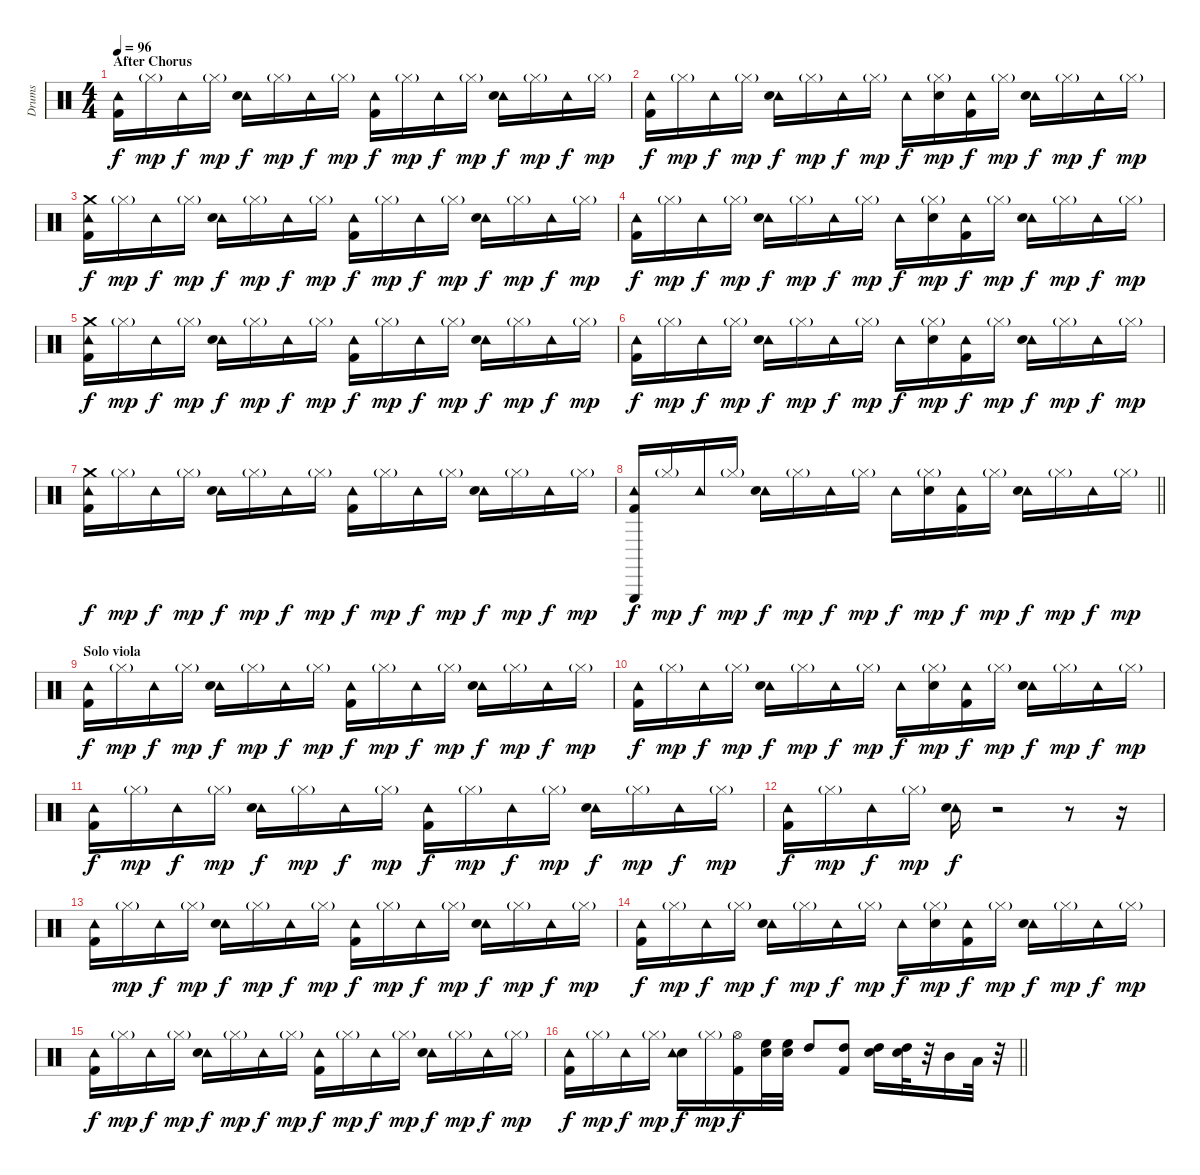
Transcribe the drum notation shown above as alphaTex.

\track ("Drums" "Drums") {instrument percussion}
\staff {score}
\articulation defaults
\ts (4 4)
\section ("" "After Chorus")
\tempo 96
\clef neutral
\ks c
("Tambourine (hit)" "Kick (hit) 2").16{dy f} "Hi-Hat (closed)"{g}.16{dy mp} "Tambourine (hit)".16{dy f} "Hi-Hat (closed)"{g}.16{dy mp} ("Tambourine (hit)" "Snare (hit) 2").16{dy f} "Hi-Hat (closed)"{g}.16{dy mp} "Tambourine (hit)".16{dy f} "Hi-Hat (closed)"{g}.16{dy mp} ("Tambourine (hit)" "Kick (hit) 2").16{dy f} "Hi-Hat (closed)"{g}.16{dy mp} "Tambourine (hit)".16{dy f} "Hi-Hat (closed)"{g}.16{dy mp} ("Tambourine (hit)" "Snare (hit) 2").16{dy f} "Hi-Hat (closed)"{g}.16{dy mp} "Tambourine (hit)".16{dy f} "Hi-Hat (closed)"{g}.16{dy mp} |
("Tambourine (hit)" "Kick (hit) 2").16{dy f} "Hi-Hat (closed)"{g}.16{dy mp} "Tambourine (hit)".16{dy f} "Hi-Hat (closed)"{g}.16{dy mp} ("Tambourine (hit)" "Snare (hit) 2").16{dy f} "Hi-Hat (closed)"{g}.16{dy mp} "Tambourine (hit)".16{dy f} "Hi-Hat (closed)"{g}.16{dy mp} "Tambourine (hit)".16{dy f} ("Hi-Hat (closed)"{g} "Snare (hit) 2").16{dy mp} ("Tambourine (hit)" "Kick (hit) 2").16{dy f} "Hi-Hat (closed)"{g}.16{dy mp} ("Tambourine (hit)" "Snare (hit) 2").16{dy f} "Hi-Hat (closed)"{g}.16{dy mp} "Tambourine (hit)".16{dy f} "Hi-Hat (closed)"{g}.16{dy mp} |
("Tambourine (hit)" "Crash medium (hit)" "Kick (hit) 2").16{dy f} "Hi-Hat (closed)"{g}.16{dy mp} "Tambourine (hit)".16{dy f} "Hi-Hat (closed)"{g}.16{dy mp} ("Tambourine (hit)" "Snare (hit) 2").16{dy f} "Hi-Hat (closed)"{g}.16{dy mp} "Tambourine (hit)".16{dy f} "Hi-Hat (closed)"{g}.16{dy mp} ("Tambourine (hit)" "Kick (hit) 2").16{dy f} "Hi-Hat (closed)"{g}.16{dy mp} "Tambourine (hit)".16{dy f} "Hi-Hat (closed)"{g}.16{dy mp} ("Tambourine (hit)" "Snare (hit) 2").16{dy f} "Hi-Hat (closed)"{g}.16{dy mp} "Tambourine (hit)".16{dy f} "Hi-Hat (closed)"{g}.16{dy mp} |
("Tambourine (hit)" "Kick (hit) 2").16{dy f} "Hi-Hat (closed)"{g}.16{dy mp} "Tambourine (hit)".16{dy f} "Hi-Hat (closed)"{g}.16{dy mp} ("Tambourine (hit)" "Snare (hit) 2").16{dy f} "Hi-Hat (closed)"{g}.16{dy mp} "Tambourine (hit)".16{dy f} "Hi-Hat (closed)"{g}.16{dy mp} "Tambourine (hit)".16{dy f} ("Hi-Hat (closed)"{g} "Snare (hit) 2").16{dy mp} ("Tambourine (hit)" "Kick (hit) 2").16{dy f} "Hi-Hat (closed)"{g}.16{dy mp} ("Tambourine (hit)" "Snare (hit) 2").16{dy f} "Hi-Hat (closed)"{g}.16{dy mp} "Tambourine (hit)".16{dy f} "Hi-Hat (closed)"{g}.16{dy mp} |
("Tambourine (hit)" "Crash medium (hit)" "Kick (hit) 2").16{dy f} "Hi-Hat (closed)"{g}.16{dy mp} "Tambourine (hit)".16{dy f} "Hi-Hat (closed)"{g}.16{dy mp} ("Tambourine (hit)" "Snare (hit) 2").16{dy f} "Hi-Hat (closed)"{g}.16{dy mp} "Tambourine (hit)".16{dy f} "Hi-Hat (closed)"{g}.16{dy mp} ("Tambourine (hit)" "Kick (hit) 2").16{dy f} "Hi-Hat (closed)"{g}.16{dy mp} "Tambourine (hit)".16{dy f} "Hi-Hat (closed)"{g}.16{dy mp} ("Tambourine (hit)" "Snare (hit) 2").16{dy f} "Hi-Hat (closed)"{g}.16{dy mp} "Tambourine (hit)".16{dy f} "Hi-Hat (closed)"{g}.16{dy mp} |
("Tambourine (hit)" "Kick (hit) 2").16{dy f} "Hi-Hat (closed)"{g}.16{dy mp} "Tambourine (hit)".16{dy f} "Hi-Hat (closed)"{g}.16{dy mp} ("Tambourine (hit)" "Snare (hit) 2").16{dy f} "Hi-Hat (closed)"{g}.16{dy mp} "Tambourine (hit)".16{dy f} "Hi-Hat (closed)"{g}.16{dy mp} "Tambourine (hit)".16{dy f} ("Hi-Hat (closed)"{g} "Snare (hit) 2").16{dy mp} ("Tambourine (hit)" "Kick (hit) 2").16{dy f} "Hi-Hat (closed)"{g}.16{dy mp} ("Tambourine (hit)" "Snare (hit) 2").16{dy f} "Hi-Hat (closed)"{g}.16{dy mp} "Tambourine (hit)".16{dy f} "Hi-Hat (closed)"{g}.16{dy mp} |
("Tambourine (hit)" "Crash medium (hit)" "Kick (hit) 2").16{dy f} "Hi-Hat (closed)"{g}.16{dy mp} "Tambourine (hit)".16{dy f} "Hi-Hat (closed)"{g}.16{dy mp} ("Tambourine (hit)" "Snare (hit) 2").16{dy f} "Hi-Hat (closed)"{g}.16{dy mp} "Tambourine (hit)".16{dy f} "Hi-Hat (closed)"{g}.16{dy mp} ("Tambourine (hit)" "Kick (hit) 2").16{dy f} "Hi-Hat (closed)"{g}.16{dy mp} "Tambourine (hit)".16{dy f} "Hi-Hat (closed)"{g}.16{dy mp} ("Tambourine (hit)" "Snare (hit) 2").16{dy f} "Hi-Hat (closed)"{g}.16{dy mp} "Tambourine (hit)".16{dy f} "Hi-Hat (closed)"{g}.16{dy mp} |
\barLineRight lightlight
("Tambourine (hit)" "Triangle (hit)" "Kick (hit) 2").16{dy f} "Hi-Hat (closed)"{g}.16{dy mp} "Tambourine (hit)".16{dy f} "Hi-Hat (closed)"{g}.16{dy mp} ("Tambourine (hit)" "Snare (hit) 2").16{dy f} "Hi-Hat (closed)"{g}.16{dy mp} "Tambourine (hit)".16{dy f} "Hi-Hat (closed)"{g}.16{dy mp} "Tambourine (hit)".16{dy f} ("Hi-Hat (closed)"{g} "Snare (hit) 2").16{dy mp} ("Tambourine (hit)" "Kick (hit) 2").16{dy f} "Hi-Hat (closed)"{g}.16{dy mp} ("Tambourine (hit)" "Snare (hit) 2").16{dy f} "Hi-Hat (closed)"{g}.16{dy mp} "Tambourine (hit)".16{dy f} "Hi-Hat (closed)"{g}.16{dy mp} |
\section ("" "Solo viola")
("Tambourine (hit)" "Kick (hit) 2").16{dy f} "Hi-Hat (closed)"{g}.16{dy mp} "Tambourine (hit)".16{dy f} "Hi-Hat (closed)"{g}.16{dy mp} ("Tambourine (hit)" "Snare (hit) 2").16{dy f} "Hi-Hat (closed)"{g}.16{dy mp} "Tambourine (hit)".16{dy f} "Hi-Hat (closed)"{g}.16{dy mp} ("Tambourine (hit)" "Kick (hit) 2").16{dy f} "Hi-Hat (closed)"{g}.16{dy mp} "Tambourine (hit)".16{dy f} "Hi-Hat (closed)"{g}.16{dy mp} ("Tambourine (hit)" "Snare (hit) 2").16{dy f} "Hi-Hat (closed)"{g}.16{dy mp} "Tambourine (hit)".16{dy f} "Hi-Hat (closed)"{g}.16{dy mp} |
("Tambourine (hit)" "Kick (hit) 2").16{dy f} "Hi-Hat (closed)"{g}.16{dy mp} "Tambourine (hit)".16{dy f} "Hi-Hat (closed)"{g}.16{dy mp} ("Tambourine (hit)" "Snare (hit) 2").16{dy f} "Hi-Hat (closed)"{g}.16{dy mp} "Tambourine (hit)".16{dy f} "Hi-Hat (closed)"{g}.16{dy mp} "Tambourine (hit)".16{dy f} ("Hi-Hat (closed)"{g} "Snare (hit) 2").16{dy mp} ("Tambourine (hit)" "Kick (hit) 2").16{dy f} "Hi-Hat (closed)"{g}.16{dy mp} ("Tambourine (hit)" "Snare (hit) 2").16{dy f} "Hi-Hat (closed)"{g}.16{dy mp} "Tambourine (hit)".16{dy f} "Hi-Hat (closed)"{g}.16{dy mp} |
("Tambourine (hit)" "Kick (hit) 2").16{dy f} "Hi-Hat (closed)"{g}.16{dy mp} "Tambourine (hit)".16{dy f} "Hi-Hat (closed)"{g}.16{dy mp} ("Tambourine (hit)" "Snare (hit) 2").16{dy f} "Hi-Hat (closed)"{g}.16{dy mp} "Tambourine (hit)".16{dy f} "Hi-Hat (closed)"{g}.16{dy mp} ("Tambourine (hit)" "Kick (hit) 2").16{dy f} "Hi-Hat (closed)"{g}.16{dy mp} "Tambourine (hit)".16{dy f} "Hi-Hat (closed)"{g}.16{dy mp} ("Tambourine (hit)" "Snare (hit) 2").16{dy f} "Hi-Hat (closed)"{g}.16{dy mp} "Tambourine (hit)".16{dy f} "Hi-Hat (closed)"{g}.16{dy mp} |
("Tambourine (hit)" "Kick (hit) 2").16{dy f} "Hi-Hat (closed)"{g}.16{dy mp} "Tambourine (hit)".16{dy f} "Hi-Hat (closed)"{g}.16{dy mp} ("Tambourine (hit)" "Snare (hit) 2").16{dy f} r.2 r.8 r.16 |
("Tambourine (hit)" "Kick (hit) 2").16 "Hi-Hat (closed)"{g}.16{dy mp} "Tambourine (hit)".16{dy f} "Hi-Hat (closed)"{g}.16{dy mp} ("Tambourine (hit)" "Snare (hit) 2").16{dy f} "Hi-Hat (closed)"{g}.16{dy mp} "Tambourine (hit)".16{dy f} "Hi-Hat (closed)"{g}.16{dy mp} ("Tambourine (hit)" "Kick (hit) 2").16{dy f} "Hi-Hat (closed)"{g}.16{dy mp} "Tambourine (hit)".16{dy f} "Hi-Hat (closed)"{g}.16{dy mp} ("Tambourine (hit)" "Snare (hit) 2").16{dy f} "Hi-Hat (closed)"{g}.16{dy mp} "Tambourine (hit)".16{dy f} "Hi-Hat (closed)"{g}.16{dy mp} |
("Tambourine (hit)" "Kick (hit) 2").16{dy f} "Hi-Hat (closed)"{g}.16{dy mp} "Tambourine (hit)".16{dy f} "Hi-Hat (closed)"{g}.16{dy mp} ("Tambourine (hit)" "Snare (hit) 2").16{dy f} "Hi-Hat (closed)"{g}.16{dy mp} "Tambourine (hit)".16{dy f} "Hi-Hat (closed)"{g}.16{dy mp} "Tambourine (hit)".16{dy f} ("Hi-Hat (closed)"{g} "Snare (hit) 2").16{dy mp} ("Tambourine (hit)" "Kick (hit) 2").16{dy f} "Hi-Hat (closed)"{g}.16{dy mp} ("Tambourine (hit)" "Snare (hit) 2").16{dy f} "Hi-Hat (closed)"{g}.16{dy mp} "Tambourine (hit)".16{dy f} "Hi-Hat (closed)"{g}.16{dy mp} |
("Tambourine (hit)" "Kick (hit) 2").16{dy f} "Hi-Hat (closed)"{g}.16{dy mp} "Tambourine (hit)".16{dy f} "Hi-Hat (closed)"{g}.16{dy mp} ("Tambourine (hit)" "Snare (hit) 2").16{dy f} "Hi-Hat (closed)"{g}.16{dy mp} "Tambourine (hit)".16{dy f} "Hi-Hat (closed)"{g}.16{dy mp} ("Tambourine (hit)" "Kick (hit) 2").16{dy f} "Hi-Hat (closed)"{g}.16{dy mp} "Tambourine (hit)".16{dy f} "Hi-Hat (closed)"{g}.16{dy mp} ("Tambourine (hit)" "Snare (hit) 2").16{dy f} "Hi-Hat (closed)"{g}.16{dy mp} "Tambourine (hit)".16{dy f} "Hi-Hat (closed)"{g}.16{dy mp} |
\barLineRight lightlight
("Kick (hit) 2" "Tambourine (hit)").16{dy f} "Hi-Hat (closed)"{g}.16{dy mp} "Tambourine (hit)".16{dy f} "Hi-Hat (closed)"{g}.16{dy mp} ("Snare (hit) 2" "Tambourine (hit)").16{dy f} "Hi-Hat (closed)"{g}.16{dy mp} ("Kick (hit) 2" "Hi-Hat (open)").16{dy f} ("High Floor Tom (hit)" "Electric Snare (hit)").32 ("High Floor Tom (hit)" "Electric Snare (hit)").32 "High Tom (hit)".8 ("High Tom (hit)" "Kick (hit) 2").8 ("High Tom (hit)" "Electric Snare (hit)").16 ("High Tom (hit)" "Electric Snare (hit)").32 r.32 "Mid Tom (hit)".16 "Low Tom (hit)".32 r.32
